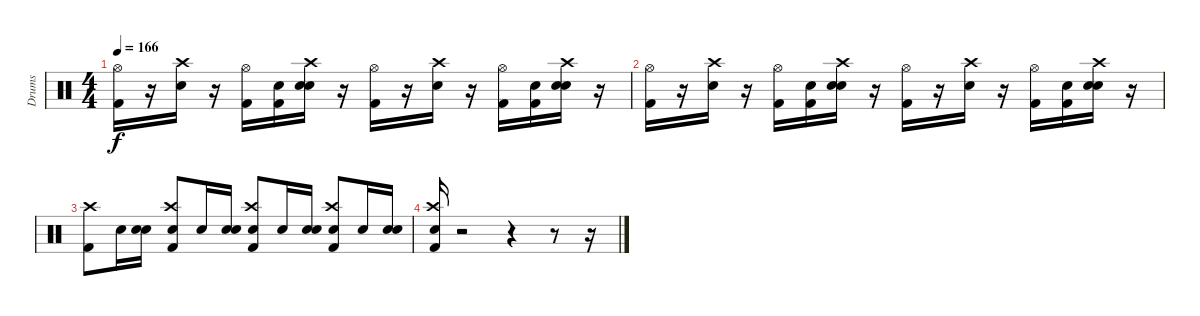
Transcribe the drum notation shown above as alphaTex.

\track ("Drums" "Drums") {instrument percussion}
\staff {score}
\articulation defaults
\ts (4 4)
\tempo 166
\clef neutral
\ks c
("Hi-Hat (open)" "Kick (hit) 2").16{dy f} r.16 ("Crash high (hit)" "Electric Snare (hit)").16 r.16 ("Hi-Hat (open)" "Kick (hit) 2").16 ("Snare (hit)" "Kick (hit) 2").16 ("Snare (hit)" "Crash high (hit)" "Electric Snare (hit)").16 r.16 ("Hi-Hat (open)" "Kick (hit) 2").16 r.16 ("Electric Snare (hit)" "Crash high (hit)").16 r.16 ("Hi-Hat (open)" "Kick (hit) 2").16 ("Snare (hit)" "Kick (hit) 2").16 ("Snare (hit)" "Crash high (hit)" "Electric Snare (hit)").16 r.16 |
("Hi-Hat (open)" "Kick (hit) 2").16 r.16 ("Crash high (hit)" "Electric Snare (hit)").16 r.16 ("Hi-Hat (open)" "Kick (hit) 2").16 ("Snare (hit)" "Kick (hit) 2").16 ("Snare (hit)" "Crash high (hit)" "Electric Snare (hit)").16 r.16 ("Hi-Hat (open)" "Kick (hit) 2").16 r.16 ("Electric Snare (hit)" "Crash high (hit)").16 r.16 ("Hi-Hat (open)" "Kick (hit) 2").16 ("Snare (hit)" "Kick (hit) 2").16 ("Snare (hit)" "Crash high (hit)" "Electric Snare (hit)").16 r.16 |
("Crash high (hit)" "Kick (hit) 2").8 "Electric Snare (hit)".16 ("Snare (hit)" "Electric Snare (hit)").16 ("Snare (hit)" "Crash high (hit)" "Kick (hit) 2").8 "Electric Snare (hit)".16 ("Snare (hit)" "Electric Snare (hit)").16 ("Snare (hit)" "Crash high (hit)" "Kick (hit) 2").8 "Electric Snare (hit)".16 ("Snare (hit)" "Electric Snare (hit)").16 ("Snare (hit)" "Crash high (hit)" "Kick (hit) 2").8 "Electric Snare (hit)".16 ("Snare (hit)" "Electric Snare (hit)").16 |
("Snare (hit)" "Crash high (hit)" "Kick (hit) 2").16 r.2 r.4 r.8 r.16
